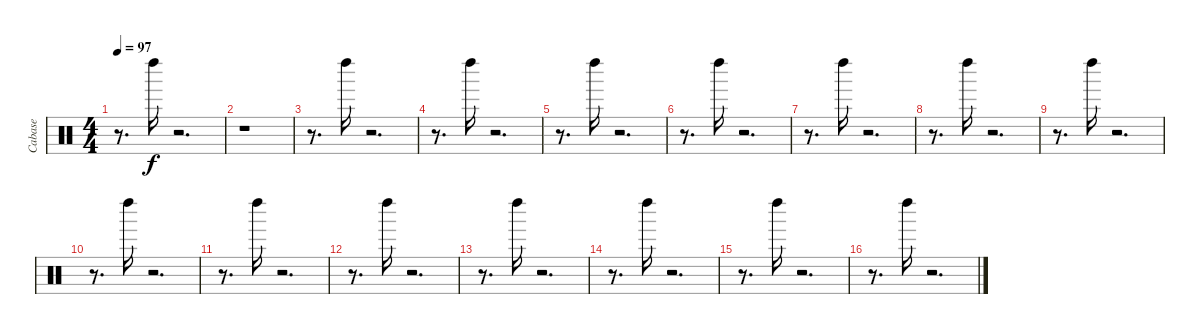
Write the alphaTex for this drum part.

\track ("Cabase" "Cabase") {instrument percussion}
\staff {score}
\articulation defaults
\ts (4 4)
\tempo 97
\clef neutral
\ks c
r.8{d dy f} "Left Maraca (hit)".16 r.2{d} |
r.1 |
r.8{d} "Left Maraca (hit)".16 r.2{d} |
r.8{d} "Left Maraca (hit)".16 r.2{d} |
r.8{d} "Left Maraca (hit)".16 r.2{d} |
r.8{d} "Left Maraca (hit)".16 r.2{d} |
r.8{d} "Left Maraca (hit)".16 r.2{d} |
r.8{d} "Left Maraca (hit)".16 r.2{d} |
r.8{d} "Left Maraca (hit)".16 r.2{d} |
r.8{d} "Left Maraca (hit)".16 r.2{d} |
r.8{d} "Left Maraca (hit)".16 r.2{d} |
r.8{d} "Left Maraca (hit)".16 r.2{d} |
r.8{d} "Left Maraca (hit)".16 r.2{d} |
r.8{d} "Left Maraca (hit)".16 r.2{d} |
r.8{d} "Left Maraca (hit)".16 r.2{d} |
r.8{d} "Left Maraca (hit)".16 r.2{d}
